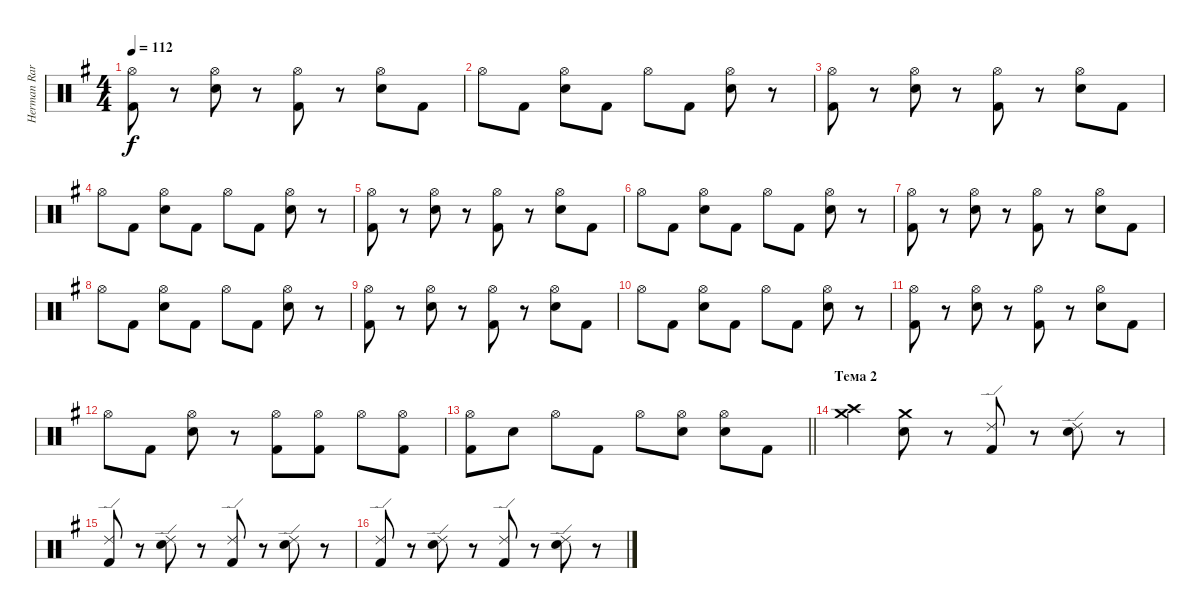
\track ("Herman Rarebell" "Herman Rar") {instrument percussion}
\staff {score}
\articulation defaults
\ts (4 4)
\tempo 112
\clef neutral
\ks eminor
("Hi-Hat (open)" "Kick (hit) 2").8{dy f} r.8 ("Hi-Hat (open)" "Electric Snare (hit)").8 r.8 ("Hi-Hat (open)" "Kick (hit) 2").8 r.8 ("Hi-Hat (open)" "Electric Snare (hit)").8 "Kick (hit) 2".8 |
"Hi-Hat (open)".8 "Kick (hit) 2".8 ("Hi-Hat (open)" "Electric Snare (hit)").8 "Kick (hit) 2".8 "Hi-Hat (open)".8 "Kick (hit) 2".8 ("Hi-Hat (open)" "Electric Snare (hit)").8 r.8 |
("Hi-Hat (open)" "Kick (hit) 2").8 r.8 ("Hi-Hat (open)" "Electric Snare (hit)").8 r.8 ("Hi-Hat (open)" "Kick (hit) 2").8 r.8 ("Hi-Hat (open)" "Electric Snare (hit)").8 "Kick (hit) 2".8 |
"Hi-Hat (open)".8 "Kick (hit) 2".8 ("Hi-Hat (open)" "Electric Snare (hit)").8 "Kick (hit) 2".8 "Hi-Hat (open)".8 "Kick (hit) 2".8 ("Hi-Hat (open)" "Electric Snare (hit)").8 r.8 |
("Hi-Hat (open)" "Kick (hit) 2").8 r.8 ("Hi-Hat (open)" "Electric Snare (hit)").8 r.8 ("Hi-Hat (open)" "Kick (hit) 2").8 r.8 ("Hi-Hat (open)" "Electric Snare (hit)").8 "Kick (hit) 2".8 |
"Hi-Hat (open)".8 "Kick (hit) 2".8 ("Hi-Hat (open)" "Electric Snare (hit)").8 "Kick (hit) 2".8 "Hi-Hat (open)".8 "Kick (hit) 2".8 ("Hi-Hat (open)" "Electric Snare (hit)").8 r.8 |
("Hi-Hat (open)" "Kick (hit) 2").8 r.8 ("Hi-Hat (open)" "Electric Snare (hit)").8 r.8 ("Hi-Hat (open)" "Kick (hit) 2").8 r.8 ("Hi-Hat (open)" "Electric Snare (hit)").8 "Kick (hit) 2".8 |
"Hi-Hat (open)".8 "Kick (hit) 2".8 ("Hi-Hat (open)" "Electric Snare (hit)").8 "Kick (hit) 2".8 "Hi-Hat (open)".8 "Kick (hit) 2".8 ("Hi-Hat (open)" "Electric Snare (hit)").8 r.8 |
("Hi-Hat (open)" "Kick (hit) 2").8 r.8 ("Hi-Hat (open)" "Electric Snare (hit)").8 r.8 ("Hi-Hat (open)" "Kick (hit) 2").8 r.8 ("Hi-Hat (open)" "Electric Snare (hit)").8 "Kick (hit) 2".8 |
"Hi-Hat (open)".8 "Kick (hit) 2".8 ("Hi-Hat (open)" "Electric Snare (hit)").8 "Kick (hit) 2".8 "Hi-Hat (open)".8 "Kick (hit) 2".8 ("Hi-Hat (open)" "Electric Snare (hit)").8 r.8 |
("Hi-Hat (open)" "Kick (hit) 2").8 r.8 ("Hi-Hat (open)" "Electric Snare (hit)").8 r.8 ("Hi-Hat (open)" "Kick (hit) 2").8 r.8 ("Hi-Hat (open)" "Electric Snare (hit)").8 "Kick (hit) 2".8 |
"Hi-Hat (open)".8 "Kick (hit) 2".8 ("Hi-Hat (open)" "Electric Snare (hit)").8 r.8 ("Hi-Hat (open)" "Kick (hit) 2").8 ("Hi-Hat (open)" "Kick (hit) 2").8 "Hi-Hat (open)".8 ("Hi-Hat (open)" "Kick (hit) 2").8 |
\barLineRight lightlight
("Hi-Hat (open)" "Kick (hit) 2").8 "Electric Snare (hit)".8 "Hi-Hat (open)".8 "Kick (hit) 2".8 "Hi-Hat (open)".8 ("Hi-Hat (open)" "Electric Snare (hit)").8 ("Hi-Hat (open)" "Electric Snare (hit)").8 "Kick (hit) 2".8 |
\section ("" "Тема 2")
("Crash high (hit)" "Crash medium (hit)").4 ("Crash medium (hit)" "Electric Snare (hit)").8 r.8 ("Ride (edge) 2" "Kick (hit) 2").8 r.8 ("Ride (edge) 2" "Electric Snare (hit)").8 r.8 |
("Ride (edge) 2" "Kick (hit) 2").8 r.8 ("Ride (edge) 2" "Electric Snare (hit)").8 r.8 ("Ride (edge) 2" "Kick (hit) 2").8 r.8 ("Ride (edge) 2" "Electric Snare (hit)").8 r.8 |
("Ride (edge) 2" "Kick (hit) 2").8 r.8 ("Ride (edge) 2" "Electric Snare (hit)").8 r.8 ("Ride (edge) 2" "Kick (hit) 2").8 r.8 ("Ride (edge) 2" "Electric Snare (hit)").8 r.8
